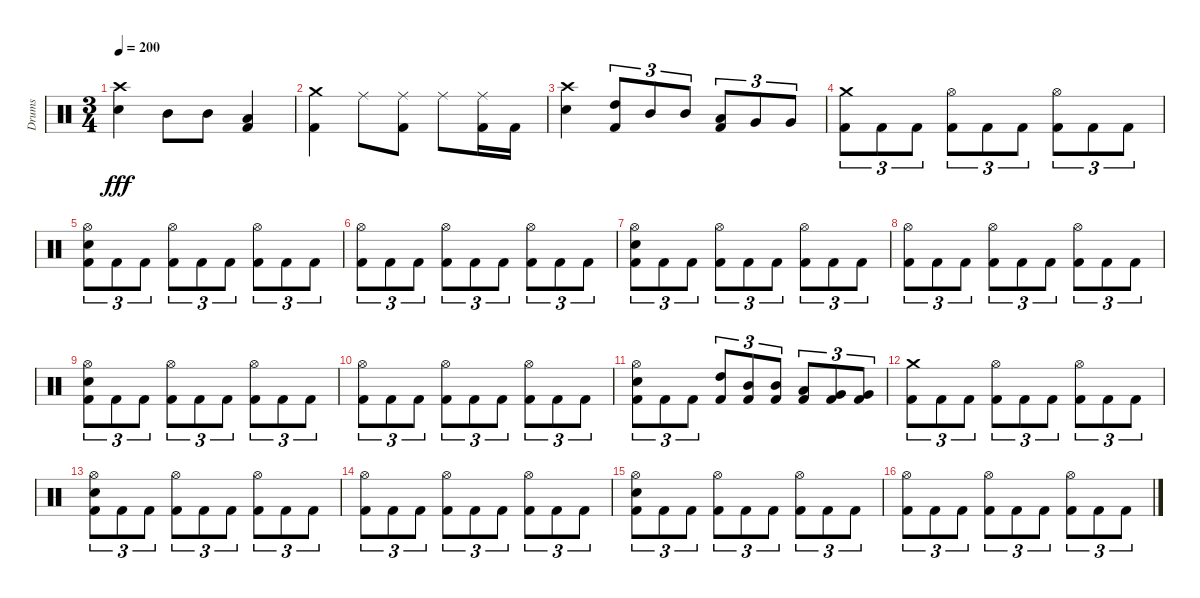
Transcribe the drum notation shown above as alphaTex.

\track ("Drums" "Drums") {instrument percussion}
\staff {score}
\articulation defaults
\ts (3 4)
\tempo 200
\clef neutral
\ks c
("Electric Snare (hit)" "Crash high (hit)").4{dy fff} "Mid Tom (hit)".8 "Mid Tom (hit)".8 ("Kick (hit) 2" "Low Tom (hit)").4 |
("Kick (hit) 2" "Crash medium (hit)").4 "Ride (middle)".8 ("Kick (hit) 2" "Ride (middle)").8 "Ride (middle)".8 ("Kick (hit) 2" "Ride (middle)").16 "Kick (hit) 2".16 |
("Electric Snare (hit)" "Crash high (hit)").4 ("Kick (hit) 2" "High Tom (hit)").8{tu (3 2)} "Mid Tom (hit)".8{tu (3 2)} "Mid Tom (hit)".8{tu (3 2)} ("Kick (hit) 2" "Low Tom (hit)").8{tu (3 2)} "Very Low Tom (hit)".8{tu (3 2)} "Very Low Tom (hit)".8{tu (3 2)} |
("Kick (hit) 2" "Crash medium (hit)").8{tu (3 2)} "Kick (hit) 2".8{tu (3 2)} "Kick (hit) 2".8{tu (3 2)} ("Kick (hit) 2" "Hi-Hat (open)").8{tu (3 2)} "Kick (hit) 2".8{tu (3 2)} "Kick (hit) 2".8{tu (3 2)} ("Kick (hit) 2" "Hi-Hat (open)").8{tu (3 2)} "Kick (hit) 2".8{tu (3 2)} "Kick (hit) 2".8{tu (3 2)} |
("Kick (hit) 2" "Electric Snare (hit)" "Hi-Hat (open)").8{tu (3 2)} "Kick (hit) 2".8{tu (3 2)} "Kick (hit) 2".8{tu (3 2)} ("Kick (hit) 2" "Hi-Hat (open)").8{tu (3 2)} "Kick (hit) 2".8{tu (3 2)} "Kick (hit) 2".8{tu (3 2)} ("Kick (hit) 2" "Hi-Hat (open)").8{tu (3 2)} "Kick (hit) 2".8{tu (3 2)} "Kick (hit) 2".8{tu (3 2)} |
("Kick (hit) 2" "Hi-Hat (open)").8{tu (3 2)} "Kick (hit) 2".8{tu (3 2)} "Kick (hit) 2".8{tu (3 2)} ("Kick (hit) 2" "Hi-Hat (open)").8{tu (3 2)} "Kick (hit) 2".8{tu (3 2)} "Kick (hit) 2".8{tu (3 2)} ("Kick (hit) 2" "Hi-Hat (open)").8{tu (3 2)} "Kick (hit) 2".8{tu (3 2)} "Kick (hit) 2".8{tu (3 2)} |
("Kick (hit) 2" "Electric Snare (hit)" "Hi-Hat (open)").8{tu (3 2)} "Kick (hit) 2".8{tu (3 2)} "Kick (hit) 2".8{tu (3 2)} ("Kick (hit) 2" "Hi-Hat (open)").8{tu (3 2)} "Kick (hit) 2".8{tu (3 2)} "Kick (hit) 2".8{tu (3 2)} ("Kick (hit) 2" "Hi-Hat (open)").8{tu (3 2)} "Kick (hit) 2".8{tu (3 2)} "Kick (hit) 2".8{tu (3 2)} |
("Kick (hit) 2" "Hi-Hat (open)").8{tu (3 2)} "Kick (hit) 2".8{tu (3 2)} "Kick (hit) 2".8{tu (3 2)} ("Kick (hit) 2" "Hi-Hat (open)").8{tu (3 2)} "Kick (hit) 2".8{tu (3 2)} "Kick (hit) 2".8{tu (3 2)} ("Kick (hit) 2" "Hi-Hat (open)").8{tu (3 2)} "Kick (hit) 2".8{tu (3 2)} "Kick (hit) 2".8{tu (3 2)} |
("Kick (hit) 2" "Electric Snare (hit)" "Hi-Hat (open)").8{tu (3 2)} "Kick (hit) 2".8{tu (3 2)} "Kick (hit) 2".8{tu (3 2)} ("Kick (hit) 2" "Hi-Hat (open)").8{tu (3 2)} "Kick (hit) 2".8{tu (3 2)} "Kick (hit) 2".8{tu (3 2)} ("Kick (hit) 2" "Hi-Hat (open)").8{tu (3 2)} "Kick (hit) 2".8{tu (3 2)} "Kick (hit) 2".8{tu (3 2)} |
("Kick (hit) 2" "Hi-Hat (open)").8{tu (3 2)} "Kick (hit) 2".8{tu (3 2)} "Kick (hit) 2".8{tu (3 2)} ("Kick (hit) 2" "Hi-Hat (open)").8{tu (3 2)} "Kick (hit) 2".8{tu (3 2)} "Kick (hit) 2".8{tu (3 2)} ("Kick (hit) 2" "Hi-Hat (open)").8{tu (3 2)} "Kick (hit) 2".8{tu (3 2)} "Kick (hit) 2".8{tu (3 2)} |
("Kick (hit) 2" "Electric Snare (hit)" "Hi-Hat (open)").8{tu (3 2)} "Kick (hit) 2".8{tu (3 2)} "Kick (hit) 2".8{tu (3 2)} ("Kick (hit) 2" "High Tom (hit)").8{tu (3 2)} ("Kick (hit) 2" "Mid Tom (hit)").8{tu (3 2)} ("Kick (hit) 2" "Mid Tom (hit)").8{tu (3 2)} ("Kick (hit) 2" "Low Tom (hit)").8{tu (3 2)} ("Kick (hit) 2" "Very Low Tom (hit)").8{tu (3 2)} ("Kick (hit) 2" "Very Low Tom (hit)").8{tu (3 2)} |
("Kick (hit) 2" "Crash medium (hit)").8{tu (3 2)} "Kick (hit) 2".8{tu (3 2)} "Kick (hit) 2".8{tu (3 2)} ("Kick (hit) 2" "Hi-Hat (open)").8{tu (3 2)} "Kick (hit) 2".8{tu (3 2)} "Kick (hit) 2".8{tu (3 2)} ("Kick (hit) 2" "Hi-Hat (open)").8{tu (3 2)} "Kick (hit) 2".8{tu (3 2)} "Kick (hit) 2".8{tu (3 2)} |
("Kick (hit) 2" "Electric Snare (hit)" "Hi-Hat (open)").8{tu (3 2)} "Kick (hit) 2".8{tu (3 2)} "Kick (hit) 2".8{tu (3 2)} ("Kick (hit) 2" "Hi-Hat (open)").8{tu (3 2)} "Kick (hit) 2".8{tu (3 2)} "Kick (hit) 2".8{tu (3 2)} ("Kick (hit) 2" "Hi-Hat (open)").8{tu (3 2)} "Kick (hit) 2".8{tu (3 2)} "Kick (hit) 2".8{tu (3 2)} |
("Kick (hit) 2" "Hi-Hat (open)").8{tu (3 2)} "Kick (hit) 2".8{tu (3 2)} "Kick (hit) 2".8{tu (3 2)} ("Kick (hit) 2" "Hi-Hat (open)").8{tu (3 2)} "Kick (hit) 2".8{tu (3 2)} "Kick (hit) 2".8{tu (3 2)} ("Kick (hit) 2" "Hi-Hat (open)").8{tu (3 2)} "Kick (hit) 2".8{tu (3 2)} "Kick (hit) 2".8{tu (3 2)} |
("Kick (hit) 2" "Electric Snare (hit)" "Hi-Hat (open)").8{tu (3 2)} "Kick (hit) 2".8{tu (3 2)} "Kick (hit) 2".8{tu (3 2)} ("Kick (hit) 2" "Hi-Hat (open)").8{tu (3 2)} "Kick (hit) 2".8{tu (3 2)} "Kick (hit) 2".8{tu (3 2)} ("Kick (hit) 2" "Hi-Hat (open)").8{tu (3 2)} "Kick (hit) 2".8{tu (3 2)} "Kick (hit) 2".8{tu (3 2)} |
("Kick (hit) 2" "Hi-Hat (open)").8{tu (3 2)} "Kick (hit) 2".8{tu (3 2)} "Kick (hit) 2".8{tu (3 2)} ("Kick (hit) 2" "Hi-Hat (open)").8{tu (3 2)} "Kick (hit) 2".8{tu (3 2)} "Kick (hit) 2".8{tu (3 2)} ("Kick (hit) 2" "Hi-Hat (open)").8{tu (3 2)} "Kick (hit) 2".8{tu (3 2)} "Kick (hit) 2".8{tu (3 2)}
